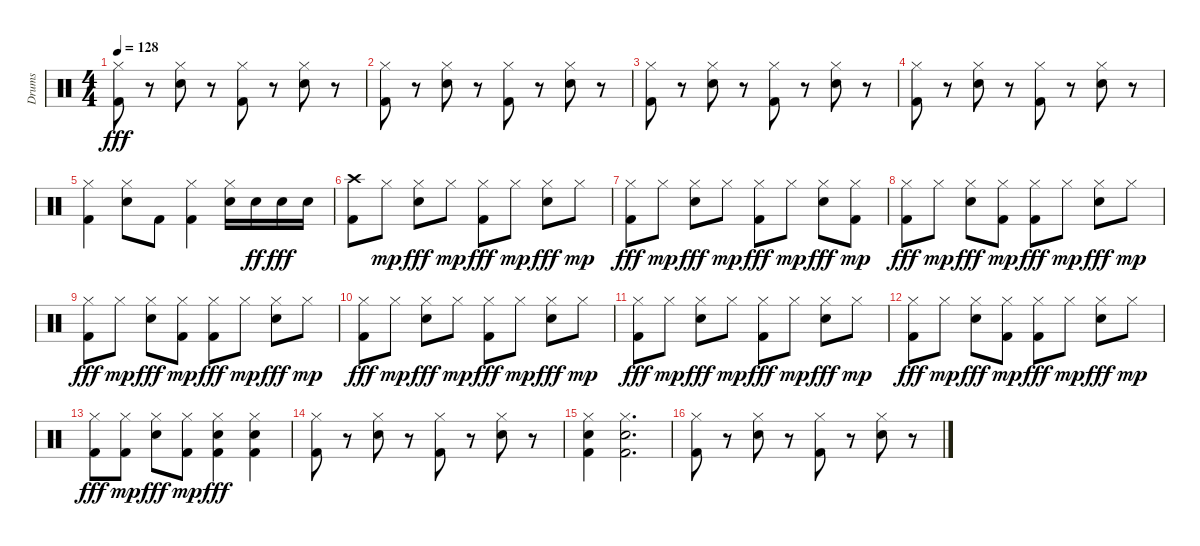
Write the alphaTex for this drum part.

\track ("Drums" "Drums") {instrument percussion}
\staff {score}
\articulation defaults
\ts (4 4)
\tempo 128
\clef neutral
\ks c
("Hi-Hat (closed)" "Kick (hit) 2").8{dy fff} r.8 ("Hi-Hat (closed)" "Snare (hit) 2").8 r.8 ("Hi-Hat (closed)" "Kick (hit) 2").8 r.8 ("Hi-Hat (closed)" "Snare (hit) 2").8 r.8 |
("Hi-Hat (closed)" "Kick (hit) 2").8 r.8 ("Hi-Hat (closed)" "Snare (hit) 2").8 r.8 ("Hi-Hat (closed)" "Kick (hit) 2").8 r.8 ("Hi-Hat (closed)" "Snare (hit) 2").8 r.8 |
("Hi-Hat (closed)" "Kick (hit) 2").8 r.8 ("Hi-Hat (closed)" "Snare (hit) 2").8 r.8 ("Hi-Hat (closed)" "Kick (hit) 2").8 r.8 ("Hi-Hat (closed)" "Snare (hit) 2").8 r.8 |
("Hi-Hat (closed)" "Kick (hit) 2").8 r.8 ("Hi-Hat (closed)" "Snare (hit) 2").8 r.8 ("Hi-Hat (closed)" "Kick (hit) 2").8 r.8 ("Hi-Hat (closed)" "Snare (hit) 2").8 r.8 |
("Hi-Hat (closed)" "Kick (hit) 2").4 ("Hi-Hat (closed)" "Snare (hit) 2").8 "Kick (hit) 2".8 ("Hi-Hat (closed)" "Kick (hit) 2").4 ("Hi-Hat (closed)" "Snare (hit) 2").16 "Snare (hit) 2".16{dy ff} "Snare (hit) 2".16{dy fff} "Snare (hit) 2".16 |
("Crash high (hit)" "Kick (hit) 2").8 "Hi-Hat (closed)".8{dy mp} ("Hi-Hat (closed)" "Snare (hit) 2").8{dy fff} "Hi-Hat (closed)".8{dy mp} ("Hi-Hat (closed)" "Kick (hit) 2").8{dy fff} "Hi-Hat (closed)".8{dy mp} ("Hi-Hat (closed)" "Snare (hit) 2").8{dy fff} "Hi-Hat (closed)".8{dy mp} |
("Hi-Hat (closed)" "Kick (hit) 2").8{dy fff} "Hi-Hat (closed)".8{dy mp} ("Hi-Hat (closed)" "Snare (hit) 2").8{dy fff} "Hi-Hat (closed)".8{dy mp} ("Hi-Hat (closed)" "Kick (hit) 2").8{dy fff} "Hi-Hat (closed)".8{dy mp} ("Hi-Hat (closed)" "Snare (hit) 2").8{dy fff} ("Kick (hit) 2" "Hi-Hat (closed)").8{dy mp} |
("Hi-Hat (closed)" "Kick (hit) 2").8{dy fff} "Hi-Hat (closed)".8{dy mp} ("Hi-Hat (closed)" "Snare (hit) 2").8{dy fff} ("Kick (hit) 2" "Hi-Hat (closed)").8{dy mp} ("Hi-Hat (closed)" "Kick (hit) 2").8{dy fff} "Hi-Hat (closed)".8{dy mp} ("Hi-Hat (closed)" "Snare (hit) 2").8{dy fff} "Hi-Hat (closed)".8{dy mp} |
("Hi-Hat (closed)" "Kick (hit) 2").8{dy fff} "Hi-Hat (closed)".8{dy mp} ("Hi-Hat (closed)" "Snare (hit) 2").8{dy fff} ("Kick (hit) 2" "Hi-Hat (closed)").8{dy mp} ("Hi-Hat (closed)" "Kick (hit) 2").8{dy fff} "Hi-Hat (closed)".8{dy mp} ("Hi-Hat (closed)" "Snare (hit) 2").8{dy fff} "Hi-Hat (closed)".8{dy mp} |
("Hi-Hat (closed)" "Kick (hit) 2").8{dy fff} "Hi-Hat (closed)".8{dy mp} ("Hi-Hat (closed)" "Snare (hit) 2").8{dy fff} "Hi-Hat (closed)".8{dy mp} ("Hi-Hat (closed)" "Kick (hit) 2").8{dy fff} "Hi-Hat (closed)".8{dy mp} ("Hi-Hat (closed)" "Snare (hit) 2").8{dy fff} "Hi-Hat (closed)".8{dy mp} |
("Hi-Hat (closed)" "Kick (hit) 2").8{dy fff} "Hi-Hat (closed)".8{dy mp} ("Hi-Hat (closed)" "Snare (hit) 2").8{dy fff} "Hi-Hat (closed)".8{dy mp} ("Hi-Hat (closed)" "Kick (hit) 2").8{dy fff} "Hi-Hat (closed)".8{dy mp} ("Hi-Hat (closed)" "Snare (hit) 2").8{dy fff} "Hi-Hat (closed)".8{dy mp} |
("Hi-Hat (closed)" "Kick (hit) 2").8{dy fff} "Hi-Hat (closed)".8{dy mp} ("Hi-Hat (closed)" "Snare (hit) 2").8{dy fff} ("Kick (hit) 2" "Hi-Hat (closed)").8{dy mp} ("Hi-Hat (closed)" "Kick (hit) 2").8{dy fff} "Hi-Hat (closed)".8{dy mp} ("Hi-Hat (closed)" "Snare (hit) 2").8{dy fff} "Hi-Hat (closed)".8{dy mp} |
("Hi-Hat (closed)" "Kick (hit) 2").8{dy fff} ("Kick (hit) 2" "Hi-Hat (closed)").8{dy mp} ("Hi-Hat (closed)" "Snare (hit) 2").8{dy fff} ("Kick (hit) 2" "Hi-Hat (closed)").8{dy mp} ("Hi-Hat (closed)" "Snare (hit) 2" "Kick (hit) 2").4{dy fff} ("Hi-Hat (closed)" "Kick (hit) 2" "Snare (hit) 2").4 |
("Hi-Hat (closed)" "Kick (hit) 2").8 r.8 ("Hi-Hat (closed)" "Snare (hit) 2").8 r.8 ("Hi-Hat (closed)" "Kick (hit) 2").8 r.8 ("Hi-Hat (closed)" "Snare (hit) 2").8 r.8 |
("Hi-Hat (closed)" "Kick (hit) 2" "Snare (hit) 2").4 ("Hi-Hat (closed)" "Kick (hit) 2" "Snare (hit) 2").2{d} |
("Hi-Hat (closed)" "Kick (hit) 2").8 r.8 ("Hi-Hat (closed)" "Snare (hit) 2").8 r.8 ("Hi-Hat (closed)" "Kick (hit) 2").8 r.8 ("Hi-Hat (closed)" "Snare (hit) 2").8 r.8
